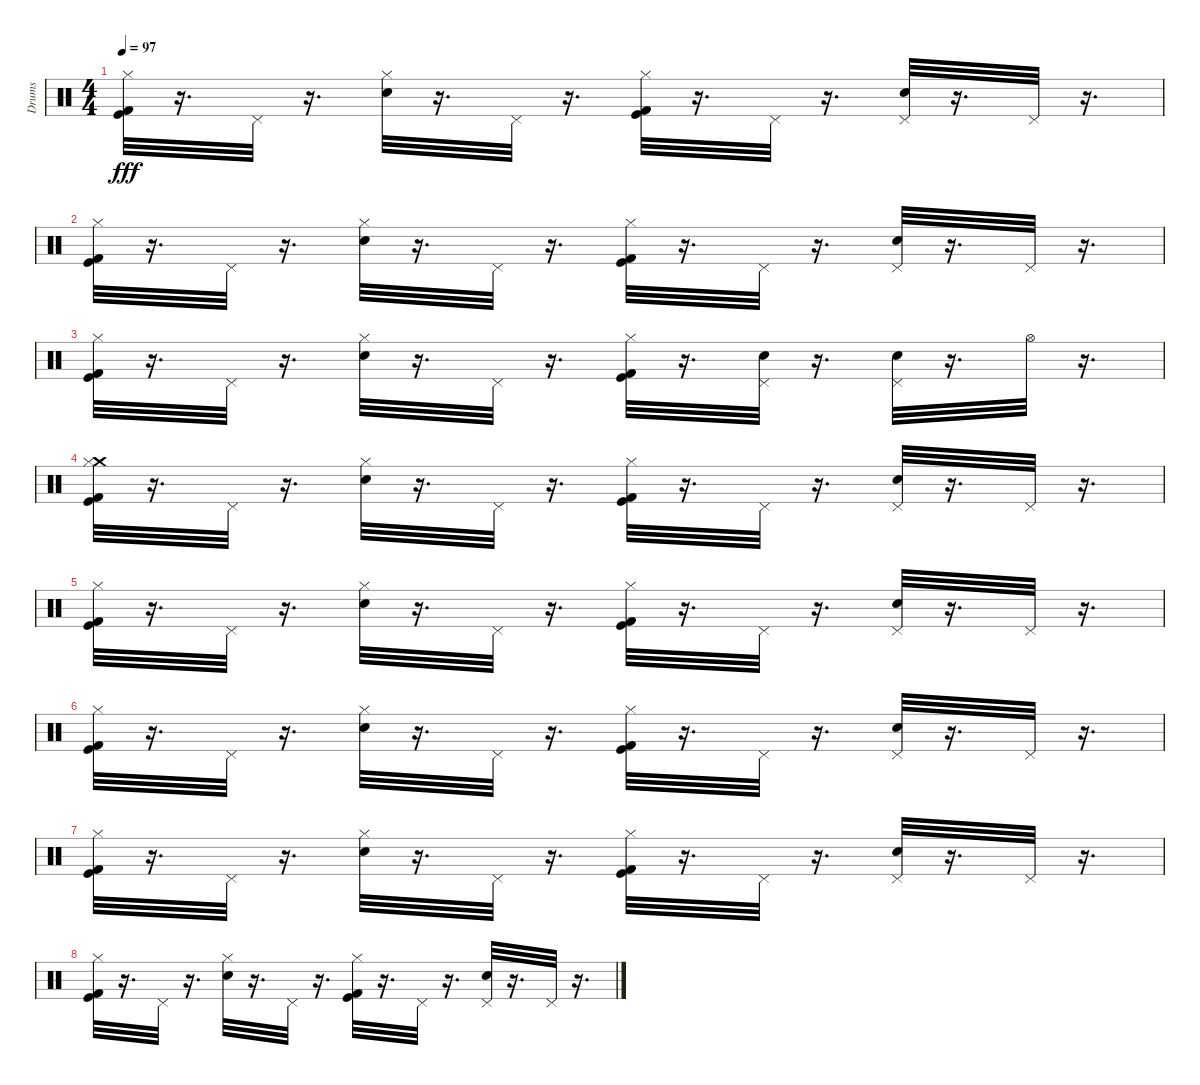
\track ("Drums" "Drums") {instrument percussion}
\staff {score}
\articulation defaults
\ts (4 4)
\tempo 97
\clef neutral
\ks c
("Kick (hit)" "Kick (hit) 2" "Hi-Hat (closed)").32{dy fff} r.16{d} "Pedal Hi-Hat (hit)".32 r.16{d} ("Hi-Hat (closed)" "Snare (hit) 2").32 r.16{d} "Pedal Hi-Hat (hit)".32 r.16{d} ("Kick (hit)" "Kick (hit) 2" "Hi-Hat (closed)").32 r.16{d} "Pedal Hi-Hat (hit)".32 r.16{d} ("Pedal Hi-Hat (hit)" "Snare (hit) 2").32 r.16{d} "Pedal Hi-Hat (hit)".32 r.16{d} |
("Kick (hit)" "Kick (hit) 2" "Hi-Hat (closed)").32 r.16{d} "Pedal Hi-Hat (hit)".32 r.16{d} ("Hi-Hat (closed)" "Snare (hit) 2").32 r.16{d} "Pedal Hi-Hat (hit)".32 r.16{d} ("Kick (hit)" "Kick (hit) 2" "Hi-Hat (closed)").32 r.16{d} "Pedal Hi-Hat (hit)".32 r.16{d} ("Pedal Hi-Hat (hit)" "Snare (hit) 2").32 r.16{d} "Pedal Hi-Hat (hit)".32 r.16{d} |
("Kick (hit)" "Kick (hit) 2" "Hi-Hat (closed)").32 r.16{d} "Pedal Hi-Hat (hit)".32 r.16{d} ("Hi-Hat (closed)" "Snare (hit) 2").32 r.16{d} "Pedal Hi-Hat (hit)".32 r.16{d} ("Kick (hit)" "Kick (hit) 2" "Hi-Hat (closed)").32 r.16{d} ("Snare (hit) 2" "Pedal Hi-Hat (hit)").32 r.16{d} ("Pedal Hi-Hat (hit)" "Snare (hit) 2").32 r.16{d} "Hi-Hat (open)".32 r.16{d} |
("Crash medium (hit)" "Kick (hit)" "Kick (hit) 2" "Hi-Hat (closed)").32 r.16{d} "Pedal Hi-Hat (hit)".32 r.16{d} ("Hi-Hat (closed)" "Snare (hit) 2").32 r.16{d} "Pedal Hi-Hat (hit)".32 r.16{d} ("Kick (hit)" "Kick (hit) 2" "Hi-Hat (closed)").32 r.16{d} "Pedal Hi-Hat (hit)".32 r.16{d} ("Pedal Hi-Hat (hit)" "Snare (hit) 2").32 r.16{d} "Pedal Hi-Hat (hit)".32 r.16{d} |
("Kick (hit)" "Kick (hit) 2" "Hi-Hat (closed)").32 r.16{d} "Pedal Hi-Hat (hit)".32 r.16{d} ("Hi-Hat (closed)" "Snare (hit) 2").32 r.16{d} "Pedal Hi-Hat (hit)".32 r.16{d} ("Kick (hit)" "Kick (hit) 2" "Hi-Hat (closed)").32 r.16{d} "Pedal Hi-Hat (hit)".32 r.16{d} ("Pedal Hi-Hat (hit)" "Snare (hit) 2").32 r.16{d} "Pedal Hi-Hat (hit)".32 r.16{d} |
("Kick (hit)" "Kick (hit) 2" "Hi-Hat (closed)").32 r.16{d} "Pedal Hi-Hat (hit)".32 r.16{d} ("Hi-Hat (closed)" "Snare (hit) 2").32 r.16{d} "Pedal Hi-Hat (hit)".32 r.16{d} ("Kick (hit)" "Kick (hit) 2" "Hi-Hat (closed)").32 r.16{d} "Pedal Hi-Hat (hit)".32 r.16{d} ("Pedal Hi-Hat (hit)" "Snare (hit) 2").32 r.16{d} "Pedal Hi-Hat (hit)".32 r.16{d} |
("Kick (hit)" "Kick (hit) 2" "Hi-Hat (closed)").32 r.16{d} "Pedal Hi-Hat (hit)".32 r.16{d} ("Hi-Hat (closed)" "Snare (hit) 2").32 r.16{d} "Pedal Hi-Hat (hit)".32 r.16{d} ("Kick (hit)" "Kick (hit) 2" "Hi-Hat (closed)").32 r.16{d} "Pedal Hi-Hat (hit)".32 r.16{d} ("Pedal Hi-Hat (hit)" "Snare (hit) 2").32 r.16{d} "Pedal Hi-Hat (hit)".32 r.16{d} |
("Kick (hit)" "Kick (hit) 2" "Hi-Hat (closed)").32 r.16{d} "Pedal Hi-Hat (hit)".32 r.16{d} ("Hi-Hat (closed)" "Snare (hit) 2").32 r.16{d} "Pedal Hi-Hat (hit)".32 r.16{d} ("Kick (hit)" "Kick (hit) 2" "Hi-Hat (closed)").32 r.16{d} "Pedal Hi-Hat (hit)".32 r.16{d} ("Pedal Hi-Hat (hit)" "Snare (hit) 2").32 r.16{d} "Pedal Hi-Hat (hit)".32 r.16{d}
